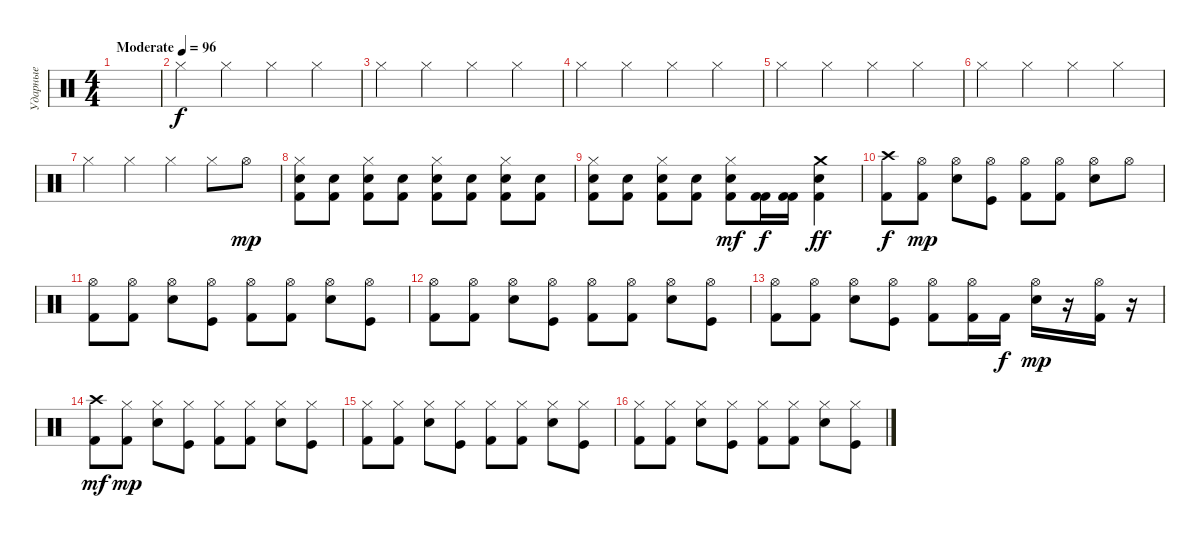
\track ("Ударные" "Ударные") {instrument percussion}
\staff {score}
\articulation defaults
\ts (4 4)
\tempo (96 "Moderate")
\clef neutral
\ks c
|
"Hi-Hat (closed)".4 "Hi-Hat (closed)".4 "Hi-Hat (closed)".4 "Hi-Hat (closed)".4 |
"Hi-Hat (closed)".4 "Hi-Hat (closed)".4 "Hi-Hat (closed)".4 "Hi-Hat (closed)".4 |
"Hi-Hat (closed)".4 "Hi-Hat (closed)".4 "Hi-Hat (closed)".4 "Hi-Hat (closed)".4 |
"Hi-Hat (closed)".4 "Hi-Hat (closed)".4 "Hi-Hat (closed)".4 "Hi-Hat (closed)".4 |
"Hi-Hat (closed)".4 "Hi-Hat (closed)".4 "Hi-Hat (closed)".4 "Hi-Hat (closed)".4 |
"Hi-Hat (closed)".4 "Hi-Hat (closed)".4 "Hi-Hat (closed)".4 "Hi-Hat (closed)".8 "Hi-Hat (open)".8{dy mp} |
("Hi-Hat (closed)" "Electric Snare (hit)" "Kick (hit) 2").8 ("Electric Snare (hit)" "Kick (hit) 2").8 ("Hi-Hat (closed)" "Electric Snare (hit)" "Kick (hit) 2").8 ("Electric Snare (hit)" "Kick (hit) 2").8 ("Hi-Hat (closed)" "Electric Snare (hit)" "Kick (hit) 2").8 ("Electric Snare (hit)" "Kick (hit) 2").8 ("Hi-Hat (closed)" "Electric Snare (hit)" "Kick (hit) 2").8 ("Electric Snare (hit)" "Kick (hit) 2").8 |
("Hi-Hat (closed)" "Electric Snare (hit)" "Kick (hit) 2").8 ("Electric Snare (hit)" "Kick (hit) 2").8 ("Hi-Hat (closed)" "Electric Snare (hit)" "Kick (hit) 2").8 ("Electric Snare (hit)" "Kick (hit) 2").8 ("Hi-Hat (closed)" "Electric Snare (hit)" "Kick (hit) 2").8{dy mf} ("Kick (hit) 2" "Kick (hit) 2").16{dy f} ("Kick (hit) 2" "Kick (hit) 2").16 ("Crash medium (hit)" "Electric Snare (hit)" "Kick (hit) 2").4{dy ff} |
("Crash high (hit)" "Kick (hit) 2").8{dy f} ("Hi-Hat (open)" "Kick (hit) 2").8{dy mp} ("Hi-Hat (open)" "Electric Snare (hit)").8 ("Hi-Hat (open)" "Kick (hit)").8 ("Hi-Hat (open)" "Kick (hit) 2").8 ("Hi-Hat (open)" "Kick (hit) 2").8 ("Hi-Hat (open)" "Electric Snare (hit)").8 "Hi-Hat (open)".8 |
("Hi-Hat (open)" "Kick (hit) 2").8 ("Hi-Hat (open)" "Kick (hit) 2").8 ("Hi-Hat (open)" "Electric Snare (hit)").8 ("Hi-Hat (open)" "Kick (hit)").8 ("Hi-Hat (open)" "Kick (hit) 2").8 ("Hi-Hat (open)" "Kick (hit) 2").8 ("Hi-Hat (open)" "Electric Snare (hit)").8 ("Hi-Hat (open)" "Kick (hit)").8 |
("Hi-Hat (open)" "Kick (hit) 2").8 ("Hi-Hat (open)" "Kick (hit) 2").8 ("Hi-Hat (open)" "Electric Snare (hit)").8 ("Hi-Hat (open)" "Kick (hit)").8 ("Hi-Hat (open)" "Kick (hit) 2").8 ("Hi-Hat (open)" "Kick (hit) 2").8 ("Hi-Hat (open)" "Electric Snare (hit)").8 ("Hi-Hat (open)" "Kick (hit)").8 |
("Hi-Hat (open)" "Kick (hit) 2").8 ("Hi-Hat (open)" "Kick (hit) 2").8 ("Hi-Hat (open)" "Electric Snare (hit)").8 ("Hi-Hat (open)" "Kick (hit)").8 ("Hi-Hat (open)" "Kick (hit) 2").8 ("Hi-Hat (open)" "Kick (hit) 2").16 "Kick (hit) 2".16{dy f} ("Hi-Hat (open)" "Electric Snare (hit)").16{dy mp} r.16 ("Hi-Hat (open)" "Kick (hit) 2").16 r.16 |
("Crash high (hit)" "Kick (hit) 2").8{dy mf} ("Hi-Hat (closed)" "Kick (hit) 2").8{dy mp} ("Hi-Hat (closed)" "Electric Snare (hit)").8 ("Hi-Hat (closed)" "Kick (hit)").8 ("Hi-Hat (closed)" "Kick (hit) 2").8 ("Hi-Hat (closed)" "Kick (hit) 2").8 ("Hi-Hat (closed)" "Electric Snare (hit)").8 ("Hi-Hat (closed)" "Kick (hit)").8 |
("Hi-Hat (closed)" "Kick (hit) 2").8 ("Hi-Hat (closed)" "Kick (hit) 2").8 ("Hi-Hat (closed)" "Electric Snare (hit)").8 ("Hi-Hat (closed)" "Kick (hit)").8 ("Hi-Hat (closed)" "Kick (hit) 2").8 ("Hi-Hat (closed)" "Kick (hit) 2").8 ("Hi-Hat (closed)" "Electric Snare (hit)").8 ("Hi-Hat (closed)" "Kick (hit)").8 |
("Hi-Hat (closed)" "Kick (hit) 2").8 ("Hi-Hat (closed)" "Kick (hit) 2").8 ("Hi-Hat (closed)" "Electric Snare (hit)").8 ("Hi-Hat (closed)" "Kick (hit)").8 ("Hi-Hat (closed)" "Kick (hit) 2").8 ("Hi-Hat (closed)" "Kick (hit) 2").8 ("Hi-Hat (closed)" "Electric Snare (hit)").8 ("Hi-Hat (closed)" "Kick (hit)").8
